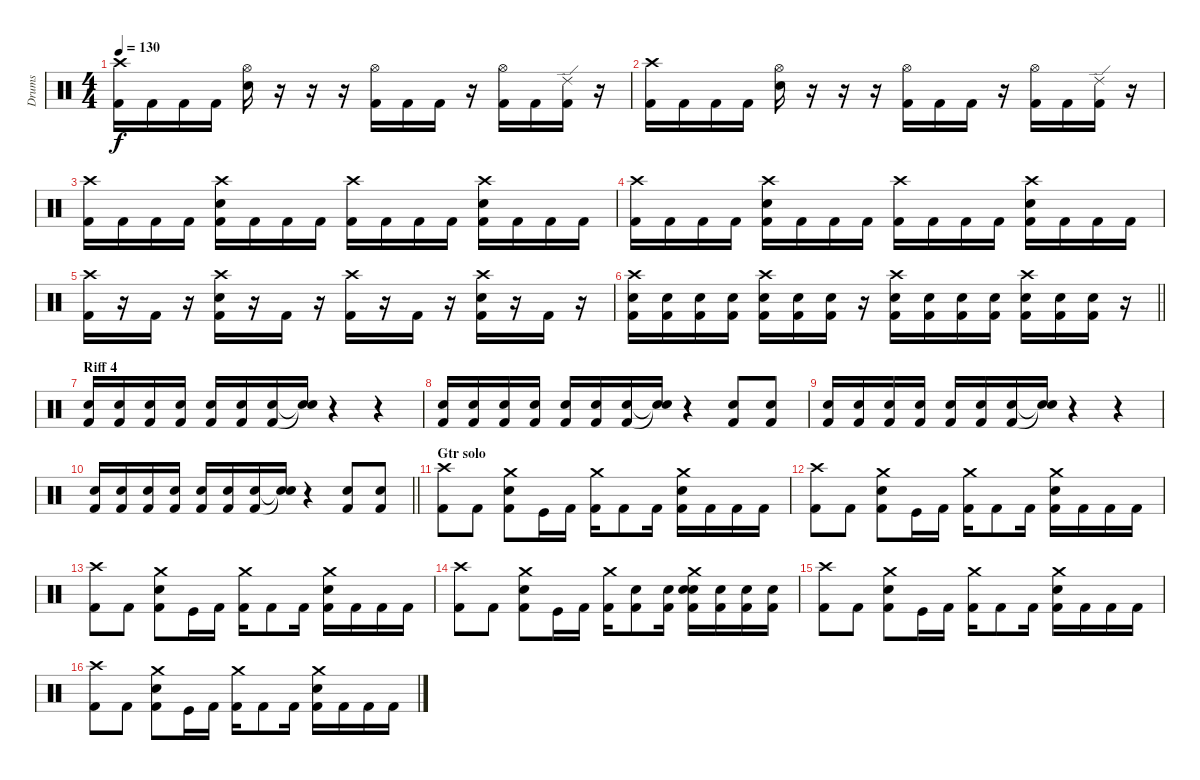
\track ("Drums" "Drums") {instrument percussion}
\staff {score}
\articulation defaults
\ts (4 4)
\tempo 130
\clef neutral
\ks c
("Crash high (hit)" "Kick (hit) 2").16{dy f} "Kick (hit) 2".16 "Kick (hit) 2".16 "Kick (hit) 2".16 ("Hi-Hat (open)" "Electric Snare (hit)").16 r.16 r.16 r.16 ("Hi-Hat (open)" "Kick (hit) 2").16 "Kick (hit) 2".16 "Kick (hit) 2".16 r.16 ("Hi-Hat (open)" "Kick (hit) 2").16 "Kick (hit) 2".16 ("Ride (edge) 2" "Kick (hit) 2").16 r.16 |
("Crash high (hit)" "Kick (hit) 2").16 "Kick (hit) 2".16 "Kick (hit) 2".16 "Kick (hit) 2".16 ("Hi-Hat (open)" "Electric Snare (hit)").16 r.16 r.16 r.16 ("Hi-Hat (open)" "Kick (hit) 2").16 "Kick (hit) 2".16 "Kick (hit) 2".16 r.16 ("Hi-Hat (open)" "Kick (hit) 2").16 "Kick (hit) 2".16 ("Ride (edge) 2" "Kick (hit) 2").16 r.16 |
("Crash high (hit)" "Kick (hit) 2").16 "Kick (hit) 2".16 "Kick (hit) 2".16 "Kick (hit) 2".16 ("Crash high (hit)" "Electric Snare (hit)" "Kick (hit) 2").16 "Kick (hit) 2".16 "Kick (hit) 2".16 "Kick (hit) 2".16 ("Crash high (hit)" "Kick (hit) 2").16 "Kick (hit) 2".16 "Kick (hit) 2".16 "Kick (hit) 2".16 ("Crash high (hit)" "Electric Snare (hit)" "Kick (hit) 2").16 "Kick (hit) 2".16 "Kick (hit) 2".16 "Kick (hit) 2".16 |
("Crash high (hit)" "Kick (hit) 2").16 "Kick (hit) 2".16 "Kick (hit) 2".16 "Kick (hit) 2".16 ("Crash high (hit)" "Electric Snare (hit)" "Kick (hit) 2").16 "Kick (hit) 2".16 "Kick (hit) 2".16 "Kick (hit) 2".16 ("Crash high (hit)" "Kick (hit) 2").16 "Kick (hit) 2".16 "Kick (hit) 2".16 "Kick (hit) 2".16 ("Crash high (hit)" "Electric Snare (hit)" "Kick (hit) 2").16 "Kick (hit) 2".16 "Kick (hit) 2".16 "Kick (hit) 2".16 |
("Crash high (hit)" "Kick (hit) 2").16 r.16 "Kick (hit) 2".16 r.16 ("Crash high (hit)" "Electric Snare (hit)" "Kick (hit) 2").16 r.16 "Kick (hit) 2".16 r.16 ("Crash high (hit)" "Kick (hit) 2").16 r.16 "Kick (hit) 2".16 r.16 ("Crash high (hit)" "Electric Snare (hit)" "Kick (hit) 2").16 r.16 "Kick (hit) 2".16 r.16 |
\barLineRight lightlight
("Crash high (hit)" "Electric Snare (hit)" "Kick (hit) 2").16 ("Electric Snare (hit)" "Kick (hit) 2").16 ("Electric Snare (hit)" "Kick (hit) 2").16 ("Electric Snare (hit)" "Kick (hit) 2").16 ("Crash high (hit)" "Electric Snare (hit)" "Kick (hit) 2").16 ("Electric Snare (hit)" "Kick (hit) 2").16 ("Electric Snare (hit)" "Kick (hit) 2").16 r.16 ("Crash high (hit)" "Electric Snare (hit)" "Kick (hit) 2").16 ("Electric Snare (hit)" "Kick (hit) 2").16 ("Electric Snare (hit)" "Kick (hit) 2").16 ("Electric Snare (hit)" "Kick (hit) 2").16 ("Crash high (hit)" "Electric Snare (hit)" "Kick (hit) 2").16 ("Electric Snare (hit)" "Kick (hit) 2").16 ("Electric Snare (hit)" "Kick (hit) 2").16 r.16 |
\section ("" "Riff 4")
("Electric Snare (hit)" "Kick (hit) 2").16 ("Electric Snare (hit)" "Kick (hit) 2").16 ("Electric Snare (hit)" "Kick (hit) 2").16 ("Electric Snare (hit)" "Kick (hit) 2").16 ("Electric Snare (hit)" "Kick (hit) 2").16 ("Electric Snare (hit)" "Kick (hit) 2").16 ("Electric Snare (hit)" "Kick (hit) 2").16 ("Snare (hit)"{t} "Snare (hit)"{t}).16 r.4 r.4 |
("Electric Snare (hit)" "Kick (hit) 2").16 ("Electric Snare (hit)" "Kick (hit) 2").16 ("Electric Snare (hit)" "Kick (hit) 2").16 ("Electric Snare (hit)" "Kick (hit) 2").16 ("Electric Snare (hit)" "Kick (hit) 2").16 ("Electric Snare (hit)" "Kick (hit) 2").16 ("Electric Snare (hit)" "Kick (hit) 2").16 ("Snare (hit)"{t} "Snare (hit)"{t}).16 r.4 ("Electric Snare (hit)" "Kick (hit) 2").8 ("Electric Snare (hit)" "Kick (hit) 2").8 |
("Electric Snare (hit)" "Kick (hit) 2").16 ("Electric Snare (hit)" "Kick (hit) 2").16 ("Electric Snare (hit)" "Kick (hit) 2").16 ("Electric Snare (hit)" "Kick (hit) 2").16 ("Electric Snare (hit)" "Kick (hit) 2").16 ("Electric Snare (hit)" "Kick (hit) 2").16 ("Electric Snare (hit)" "Kick (hit) 2").16 ("Snare (hit)"{t} "Snare (hit)"{t}).16 r.4 r.4 |
\barLineRight lightlight
("Electric Snare (hit)" "Kick (hit) 2").16 ("Electric Snare (hit)" "Kick (hit) 2").16 ("Electric Snare (hit)" "Kick (hit) 2").16 ("Electric Snare (hit)" "Kick (hit) 2").16 ("Electric Snare (hit)" "Kick (hit) 2").16 ("Electric Snare (hit)" "Kick (hit) 2").16 ("Electric Snare (hit)" "Kick (hit) 2").16 ("Snare (hit)"{t} "Snare (hit)"{t}).16 r.4 ("Electric Snare (hit)" "Kick (hit) 2").8 ("Electric Snare (hit)" "Kick (hit) 2").8 |
\section ("" "Gtr solo")
("Crash high (hit)" "Kick (hit) 2").8 "Kick (hit) 2".8 ("Crash medium (hit)" "Electric Snare (hit)" "Kick (hit) 2").8 "Kick (hit)".16 "Kick (hit) 2".16 ("Crash medium (hit)" "Kick (hit) 2").16 "Kick (hit) 2".8 "Kick (hit) 2".16 ("Crash medium (hit)" "Electric Snare (hit)" "Kick (hit) 2").16 "Kick (hit) 2".16 "Kick (hit) 2".16 "Kick (hit) 2".16 |
("Crash high (hit)" "Kick (hit) 2").8 "Kick (hit) 2".8 ("Crash medium (hit)" "Electric Snare (hit)" "Kick (hit) 2").8 "Kick (hit)".16 "Kick (hit) 2".16 ("Crash medium (hit)" "Kick (hit) 2").16 "Kick (hit) 2".8 "Kick (hit) 2".16 ("Crash medium (hit)" "Electric Snare (hit)" "Kick (hit) 2").16 "Kick (hit) 2".16 "Kick (hit) 2".16 "Kick (hit) 2".16 |
("Crash high (hit)" "Kick (hit) 2").8 "Kick (hit) 2".8 ("Crash medium (hit)" "Electric Snare (hit)" "Kick (hit) 2").8 "Kick (hit)".16 "Kick (hit) 2".16 ("Crash medium (hit)" "Kick (hit) 2").16 "Kick (hit) 2".8 "Kick (hit) 2".16 ("Crash medium (hit)" "Electric Snare (hit)" "Kick (hit) 2").16 "Kick (hit) 2".16 "Kick (hit) 2".16 "Kick (hit) 2".16 |
("Crash high (hit)" "Kick (hit) 2").8 "Kick (hit) 2".8 ("Crash medium (hit)" "Electric Snare (hit)" "Kick (hit) 2").8 "Kick (hit)".16 "Kick (hit) 2".16 ("Crash medium (hit)" "Kick (hit) 2").16 ("Electric Snare (hit)" "Kick (hit) 2").8 ("Electric Snare (hit)" "Kick (hit) 2").16 ("Crash medium (hit)" "Electric Snare (hit)" "Electric Snare (hit)" "Kick (hit) 2").16 ("Electric Snare (hit)" "Kick (hit) 2").16 ("Electric Snare (hit)" "Kick (hit) 2").16 ("Electric Snare (hit)" "Kick (hit) 2").16 |
("Crash high (hit)" "Kick (hit) 2").8 "Kick (hit) 2".8 ("Crash medium (hit)" "Electric Snare (hit)" "Kick (hit) 2").8 "Kick (hit)".16 "Kick (hit) 2".16 ("Crash medium (hit)" "Kick (hit) 2").16 "Kick (hit) 2".8 "Kick (hit) 2".16 ("Crash medium (hit)" "Electric Snare (hit)" "Kick (hit) 2").16 "Kick (hit) 2".16 "Kick (hit) 2".16 "Kick (hit) 2".16 |
("Crash high (hit)" "Kick (hit) 2").8 "Kick (hit) 2".8 ("Crash medium (hit)" "Electric Snare (hit)" "Kick (hit) 2").8 "Kick (hit)".16 "Kick (hit) 2".16 ("Crash medium (hit)" "Kick (hit) 2").16 "Kick (hit) 2".8 "Kick (hit) 2".16 ("Crash medium (hit)" "Electric Snare (hit)" "Kick (hit) 2").16 "Kick (hit) 2".16 "Kick (hit) 2".16 "Kick (hit) 2".16
